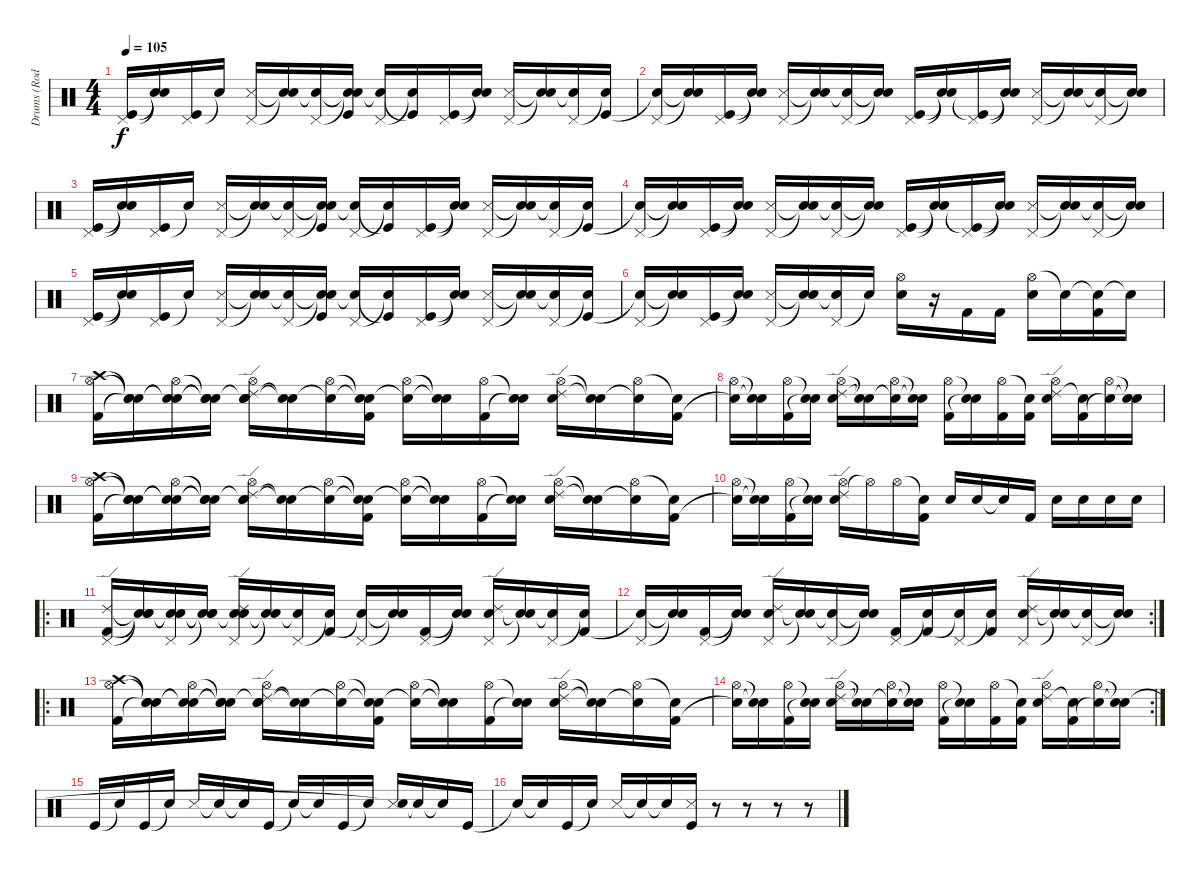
\track ("Drums (Rod Bourdon)" "Drums (Rod") {instrument percussion}
\staff {score}
\articulation defaults
\ts (4 4)
\tempo 105
\clef neutral
\ks c
("Pedal Hi-Hat (hit)" "Kick (hit)").16{dy f volume 5} ("Snare (hit)"{t} "Snare (hit)"{t}).16 ("Pedal Hi-Hat (hit)" "Kick (hit)").16 "Snare (hit)"{t}.16 ("Pedal Hi-Hat (hit)" "Snare (side stick) 3").16 ("Snare (hit)"{t} "Snare (hit)"{t}).16 ("Pedal Hi-Hat (hit)" "Snare (hit)"{t}).16 ("Snare (hit)"{t} "Snare (hit)"{t} "Kick (hit)").16 ("Pedal Hi-Hat (hit)" "Snare (hit)"{t}).16{volume 6} ("Snare (hit)"{t} "Kick (hit)"{t}).16 ("Pedal Hi-Hat (hit)" "Kick (hit)").16 ("Snare (hit)"{t} "Snare (hit)"{t}).16 ("Pedal Hi-Hat (hit)" "Snare (side stick) 3").16 ("Snare (hit)"{t} "Snare (hit)"{t}).16 ("Pedal Hi-Hat (hit)" "Snare (hit)"{t}).16 ("Snare (hit)"{t} "Kick (hit)").16 |
("Pedal Hi-Hat (hit)" "Snare (hit)"{t}).16{volume 7} ("Snare (hit)"{t} "Snare (hit)"{t}).16 ("Pedal Hi-Hat (hit)" "Kick (hit)").16 ("Snare (hit)"{t} "Snare (hit)"{t}).16 ("Pedal Hi-Hat (hit)" "Snare (side stick) 3").16 ("Snare (hit)"{t} "Snare (hit)"{t}).16 ("Pedal Hi-Hat (hit)" "Snare (hit)"{t}).16 ("Snare (hit)"{t} "Snare (hit)"{t}).16 ("Pedal Hi-Hat (hit)" "Kick (hit)").16 ("Snare (hit)"{t} "Snare (hit)"{t}).16 ("Pedal Hi-Hat (hit)" "Kick (hit)"{t}).16 ("Snare (hit)"{t} "Snare (hit)"{t}).16 ("Pedal Hi-Hat (hit)" "Snare (side stick) 3").16 ("Snare (hit)"{t} "Snare (hit)"{t}).16 ("Pedal Hi-Hat (hit)" "Snare (hit)"{t}).16 ("Snare (hit)"{t} "Snare (hit)"{t}).16 |
("Pedal Hi-Hat (hit)" "Kick (hit)").16{volume 8} ("Snare (hit)"{t} "Snare (hit)"{t}).16 ("Pedal Hi-Hat (hit)" "Kick (hit)").16 "Snare (hit)"{t}.16 ("Pedal Hi-Hat (hit)" "Snare (side stick) 3").16 ("Snare (hit)"{t} "Snare (hit)"{t}).16 ("Pedal Hi-Hat (hit)" "Snare (hit)"{t}).16 ("Snare (hit)"{t} "Snare (hit)"{t} "Kick (hit)").16 ("Pedal Hi-Hat (hit)" "Snare (hit)"{t}).16 ("Snare (hit)"{t} "Kick (hit)"{t}).16 ("Pedal Hi-Hat (hit)" "Kick (hit)").16 ("Snare (hit)"{t} "Snare (hit)"{t}).16 ("Pedal Hi-Hat (hit)" "Snare (side stick) 3").16 ("Snare (hit)"{t} "Snare (hit)"{t}).16 ("Pedal Hi-Hat (hit)" "Snare (hit)"{t}).16 ("Snare (hit)"{t} "Kick (hit)").16 |
("Pedal Hi-Hat (hit)" "Snare (hit)"{t}).16 ("Snare (hit)"{t} "Snare (hit)"{t}).16 ("Pedal Hi-Hat (hit)" "Kick (hit)").16 ("Snare (hit)"{t} "Snare (hit)"{t}).16 ("Pedal Hi-Hat (hit)" "Snare (side stick) 3").16 ("Snare (hit)"{t} "Snare (hit)"{t}).16 ("Pedal Hi-Hat (hit)" "Snare (hit)"{t}).16 ("Snare (hit)"{t} "Snare (hit)"{t}).16 ("Pedal Hi-Hat (hit)" "Kick (hit)").16 ("Snare (hit)"{t} "Snare (hit)"{t}).16 ("Pedal Hi-Hat (hit)" "Kick (hit)"{t}).16 ("Snare (hit)"{t} "Snare (hit)"{t}).16 ("Pedal Hi-Hat (hit)" "Snare (side stick) 3").16 ("Snare (hit)"{t} "Snare (hit)"{t}).16 ("Pedal Hi-Hat (hit)" "Snare (hit)"{t}).16 ("Snare (hit)"{t} "Snare (hit)"{t}).16 |
("Pedal Hi-Hat (hit)" "Kick (hit)").16{volume 8} ("Snare (hit)"{t} "Snare (hit)"{t}).16 ("Pedal Hi-Hat (hit)" "Kick (hit)").16 "Snare (hit)"{t}.16 ("Pedal Hi-Hat (hit)" "Snare (side stick) 3").16 ("Snare (hit)"{t} "Snare (hit)"{t}).16 ("Pedal Hi-Hat (hit)" "Snare (hit)"{t}).16 ("Snare (hit)"{t} "Snare (hit)"{t} "Kick (hit)").16 ("Pedal Hi-Hat (hit)" "Snare (hit)"{t}).16 ("Snare (hit)"{t} "Kick (hit)"{t}).16 ("Pedal Hi-Hat (hit)" "Kick (hit)").16 ("Snare (hit)"{t} "Snare (hit)"{t}).16 ("Pedal Hi-Hat (hit)" "Snare (side stick) 3").16 ("Snare (hit)"{t} "Snare (hit)"{t}).16 ("Pedal Hi-Hat (hit)" "Snare (hit)"{t}).16 ("Snare (hit)"{t} "Kick (hit)").16 |
("Pedal Hi-Hat (hit)" "Snare (hit)"{t}).16 ("Snare (hit)"{t} "Snare (hit)"{t}).16 ("Pedal Hi-Hat (hit)" "Kick (hit)").16 ("Snare (hit)"{t} "Snare (hit)"{t}).16 ("Pedal Hi-Hat (hit)" "Snare (side stick) 3").16 ("Snare (hit)"{t} "Snare (hit)"{t}).16 ("Pedal Hi-Hat (hit)" "Snare (hit)"{t}).16 "Snare (hit)"{t}.16 ("Hi-Hat (open)" "Electric Snare (hit)").16{volume 13} r.16 "Kick (hit) 2".16 "Kick (hit) 2".16 ("Hi-Hat (open)" "Electric Snare (hit)").16 "Snare (hit)"{t}.16 ("Snare (hit)"{t} "Kick (hit) 2").16 "Snare (hit)"{t}.16 |
("Crash high (hit)" "Hi-Hat (open)" "Kick (hit) 2").16 ("Snare (hit)"{t} "Snare (hit)"{t} "Snare (hit)"{t}).16 ("Snare (hit)"{t} "Hi-Hat (open)" "Snare (hit)"{t}).16 ("Snare (hit)"{t} "Snare (hit)"{t} "Snare (hit)"{t}).16 ("Snare (hit)"{t} "Ride (edge) 2" "Hi-Hat (open)" "Electric Snare (hit)").16 ("Snare (hit)"{t} "Snare (hit)"{t}).16 ("Hi-Hat (open)" "Snare (hit)"{t}).16 ("Snare (hit)"{t} "Snare (hit)"{t} "Kick (hit) 2").16 ("Hi-Hat (open)" "Snare (hit)"{t}).16 ("Snare (hit)"{t} "Snare (hit)"{t}).16 ("Hi-Hat (open)" "Kick (hit) 2").16 ("Snare (hit)"{t} "Snare (hit)"{t}).16 ("Ride (edge) 2" "Hi-Hat (open)" "Electric Snare (hit)").16 ("Snare (hit)"{t} "Snare (hit)"{t}).16 ("Hi-Hat (open)" "Snare (hit)"{t}).16 ("Snare (hit)"{t} "Kick (hit) 2").16 |
("Hi-Hat (open)" "Snare (hit)"{t}).16 ("Snare (hit)"{t} "Snare (hit)"{t}).16 ("Hi-Hat (open)" "Kick (hit) 2").16 ("Snare (hit)"{t} "Snare (hit)"{t}).16 ("Ride (edge) 2" "Hi-Hat (open)" "Electric Snare (hit)").16 ("Snare (hit)"{t} "Snare (hit)"{t}).16 ("Hi-Hat (open)" "Snare (hit)"{t}).16 ("Snare (hit)"{t} "Snare (hit)"{t}).16 ("Hi-Hat (open)" "Kick (hit) 2").16 ("Snare (hit)"{t} "Snare (hit)"{t}).16 ("Hi-Hat (open)" "Kick (hit) 2").16 ("Snare (hit)"{t} "Kick (hit) 2").16 ("Ride (edge) 2" "Hi-Hat (open)" "Electric Snare (hit)").16 ("Snare (hit)"{t} "Kick (hit) 2").16 ("Hi-Hat (open)" "Snare (hit)"{t}).16 ("Snare (hit)"{t} "Snare (hit)"{t}).16 |
("Crash high (hit)" "Hi-Hat (open)" "Kick (hit) 2").16 ("Snare (hit)"{t} "Snare (hit)"{t} "Snare (hit)"{t}).16 ("Snare (hit)"{t} "Hi-Hat (open)" "Snare (hit)"{t}).16 ("Snare (hit)"{t} "Snare (hit)"{t} "Snare (hit)"{t}).16 ("Snare (hit)"{t} "Ride (edge) 2" "Hi-Hat (open)" "Electric Snare (hit)").16 ("Snare (hit)"{t} "Snare (hit)"{t}).16 ("Hi-Hat (open)" "Snare (hit)"{t}).16 ("Snare (hit)"{t} "Snare (hit)"{t} "Kick (hit) 2").16 ("Hi-Hat (open)" "Snare (hit)"{t}).16 ("Snare (hit)"{t} "Snare (hit)"{t}).16 ("Hi-Hat (open)" "Kick (hit) 2").16 ("Snare (hit)"{t} "Snare (hit)"{t}).16 ("Ride (edge) 2" "Hi-Hat (open)" "Electric Snare (hit)").16 ("Snare (hit)"{t} "Snare (hit)"{t}).16 ("Hi-Hat (open)" "Snare (hit)"{t}).16 ("Snare (hit)"{t} "Kick (hit) 2").16 |
("Hi-Hat (open)" "Snare (hit)"{t}).16 ("Snare (hit)"{t} "Snare (hit)"{t}).16 ("Hi-Hat (open)" "Kick (hit) 2").16 ("Snare (hit)"{t} "Snare (hit)"{t}).16 ("Ride (edge) 2" "Hi-Hat (open)" "Electric Snare (hit)").16 "Hi-Hat (open)"{t}.16 "Hi-Hat (open)".16 ("Snare (hit)"{t} "Kick (hit) 2").16 "Electric Snare (hit)".16 "Electric Snare (hit)".16 "Snare (hit)"{t}.16 "Kick (hit) 2".16 "Electric Snare (hit)".16 "Electric Snare (hit)".16 "Electric Snare (hit)".16 "Electric Snare (hit)".16 |
\ro
("Ride (edge) 2" "Pedal Hi-Hat (hit)" "Kick (hit) 2").16 ("Snare (hit)"{t} "Snare (hit)"{t} "Snare (hit)"{t}).16 ("Snare (hit)"{t} "Pedal Hi-Hat (hit)" "Snare (hit)"{t}).16 ("Snare (hit)"{t} "Snare (hit)"{t} "Snare (hit)"{t}).16 ("Snare (hit)"{t} "Pedal Hi-Hat (hit)" "Ride (edge) 2" "Electric Snare (hit)").16 ("Snare (hit)"{t} "Snare (hit)"{t}).16 ("Pedal Hi-Hat (hit)" "Snare (hit)"{t}).16 ("Snare (hit)"{t} "Kick (hit) 2").16 ("Pedal Hi-Hat (hit)" "Snare (hit)"{t}).16 ("Snare (hit)"{t} "Snare (hit)"{t}).16 ("Pedal Hi-Hat (hit)" "Kick (hit) 2").16 ("Snare (hit)"{t} "Snare (hit)"{t}).16 ("Pedal Hi-Hat (hit)" "Ride (edge) 2" "Electric Snare (hit)").16 ("Snare (hit)"{t} "Snare (hit)"{t}).16 ("Pedal Hi-Hat (hit)" "Snare (hit)"{t}).16 ("Snare (hit)"{t} "Kick (hit) 2").16 |
\rc 2
("Pedal Hi-Hat (hit)" "Snare (hit)"{t}).16 ("Snare (hit)"{t} "Snare (hit)"{t}).16 ("Pedal Hi-Hat (hit)" "Kick (hit) 2").16 ("Snare (hit)"{t} "Snare (hit)"{t}).16 ("Pedal Hi-Hat (hit)" "Ride (edge) 2" "Electric Snare (hit)").16 ("Snare (hit)"{t} "Snare (hit)"{t}).16 ("Pedal Hi-Hat (hit)" "Snare (hit)"{t}).16 ("Snare (hit)"{t} "Snare (hit)"{t}).16 ("Pedal Hi-Hat (hit)" "Kick (hit) 2").16 ("Snare (hit)"{t} "Kick (hit) 2").16 ("Pedal Hi-Hat (hit)" "Snare (hit)"{t}).16 ("Snare (hit)"{t} "Kick (hit) 2").16 ("Pedal Hi-Hat (hit)" "Ride (edge) 2" "Electric Snare (hit)").16 ("Snare (hit)"{t} "Snare (hit)"{t}).16 ("Pedal Hi-Hat (hit)" "Snare (hit)"{t}).16 ("Snare (hit)"{t} "Snare (hit)"{t}).16 |
\ro
("Crash high (hit)" "Hi-Hat (open)" "Kick (hit) 2").16 ("Snare (hit)"{t} "Snare (hit)"{t} "Snare (hit)"{t}).16 ("Snare (hit)"{t} "Hi-Hat (open)" "Snare (hit)"{t}).16 ("Snare (hit)"{t} "Snare (hit)"{t} "Snare (hit)"{t}).16 ("Snare (hit)"{t} "Ride (edge) 2" "Hi-Hat (open)" "Electric Snare (hit)").16 ("Snare (hit)"{t} "Snare (hit)"{t}).16 ("Hi-Hat (open)" "Snare (hit)"{t}).16 ("Snare (hit)"{t} "Snare (hit)"{t} "Kick (hit) 2").16 ("Hi-Hat (open)" "Snare (hit)"{t}).16 ("Snare (hit)"{t} "Snare (hit)"{t}).16 ("Hi-Hat (open)" "Kick (hit) 2").16 ("Snare (hit)"{t} "Snare (hit)"{t}).16 ("Ride (edge) 2" "Hi-Hat (open)" "Electric Snare (hit)").16 ("Snare (hit)"{t} "Snare (hit)"{t}).16 ("Hi-Hat (open)" "Snare (hit)"{t}).16 ("Snare (hit)"{t} "Kick (hit) 2").16 |
\rc 2
("Hi-Hat (open)" "Snare (hit)"{t}).16 ("Snare (hit)"{t} "Snare (hit)"{t}).16 ("Hi-Hat (open)" "Kick (hit) 2").16 ("Snare (hit)"{t} "Snare (hit)"{t}).16 ("Ride (edge) 2" "Hi-Hat (open)" "Electric Snare (hit)").16 ("Snare (hit)"{t} "Snare (hit)"{t}).16 ("Hi-Hat (open)" "Snare (hit)"{t}).16 ("Snare (hit)"{t} "Snare (hit)"{t}).16 ("Hi-Hat (open)" "Kick (hit) 2").16 ("Snare (hit)"{t} "Snare (hit)"{t}).16 ("Hi-Hat (open)" "Kick (hit) 2").16 ("Snare (hit)"{t} "Kick (hit) 2").16 ("Ride (edge) 2" "Hi-Hat (open)" "Electric Snare (hit)").16 ("Snare (hit)"{t} "Kick (hit) 2").16 ("Hi-Hat (open)" "Snare (hit)"{t}).16 ("Snare (hit)"{t} "Snare (hit)"{t}).16 |
"Kick (hit)".16 "Snare (hit)"{t}.16 "Kick (hit)".16 "Snare (hit)"{t}.16 "Snare (side stick) 3".16 "Snare (hit)"{t}.16 "Snare (hit)"{t}.16 "Kick (hit)".16 "Snare (hit)"{t}.16 "Snare (hit)"{t}.16 "Kick (hit)".16 "Snare (hit)"{t}.16 ("Snare (side stick) 3" "Snare (hit)"{t}).16 "Snare (hit)"{t}.16 "Snare (hit)"{t}.16 "Kick (hit)".16 |
"Snare (hit)"{t}.16 "Snare (hit)"{t}.16 "Kick (hit)".16 "Snare (hit)"{t}.16 "Snare (side stick) 3".16 "Snare (hit)"{t}.16 "Snare (hit)"{t}.16 ("Snare (side stick) 3" "Kick (hit)").16 r.8 r.8 r.8 r.8
